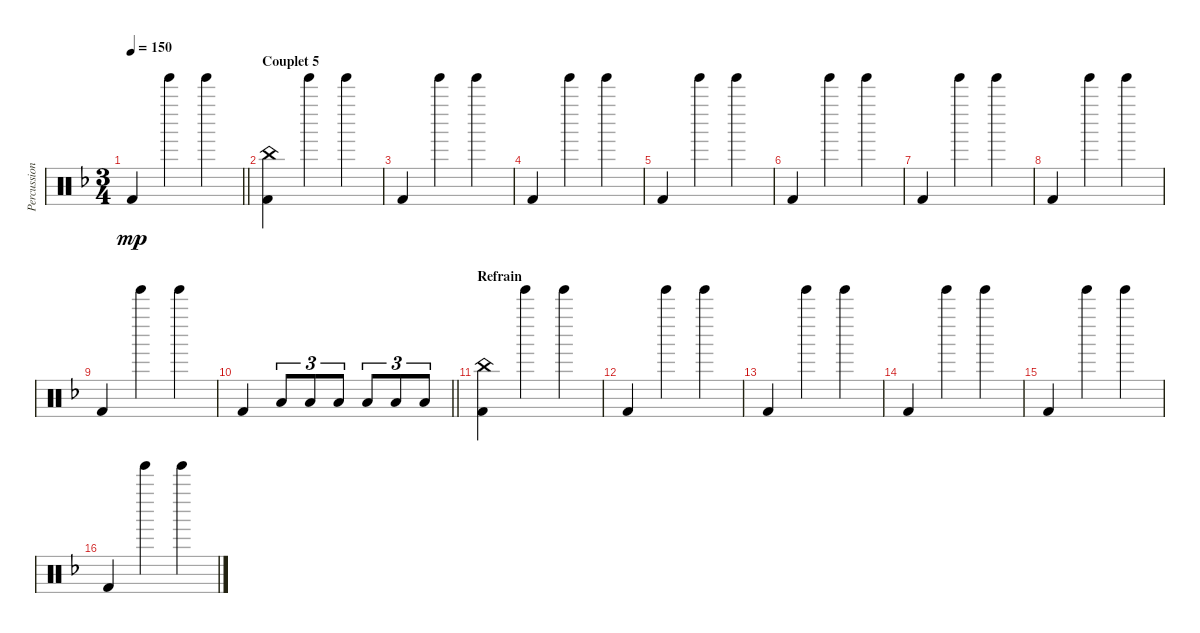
\track ("Percussions" "Percussion") {instrument percussion}
\staff {score}
\articulation defaults
\ts (3 4)
\tempo 150
\clef neutral
\barLineRight lightlight
\ks f "Kick (hit) 2".4{dy mp} "Tinkle Bell (hit)".4 "Tinkle Bell (hit)".4
|
\section ("" "Couplet 5")
("China (hit)" "Kick (hit) 2").4 "Tinkle Bell (hit)".4 "Tinkle Bell (hit)".4 |
"Kick (hit) 2".4 "Tinkle Bell (hit)".4 "Tinkle Bell (hit)".4 |
"Kick (hit) 2".4 "Tinkle Bell (hit)".4 "Tinkle Bell (hit)".4 |
"Kick (hit) 2".4 "Tinkle Bell (hit)".4 "Tinkle Bell (hit)".4 |
"Kick (hit) 2".4 "Tinkle Bell (hit)".4 "Tinkle Bell (hit)".4 |
"Kick (hit) 2".4 "Tinkle Bell (hit)".4 "Tinkle Bell (hit)".4 |
"Kick (hit) 2".4 "Tinkle Bell (hit)".4 "Tinkle Bell (hit)".4 |
"Kick (hit) 2".4 "Tinkle Bell (hit)".4 "Tinkle Bell (hit)".4 |
\barLineRight lightlight "Kick (hit) 2".4 "Low Tom (hit)".8{tu (3 2)} "Low Tom (hit)".8{tu (3 2)} "Low Tom (hit)".8{tu (3 2)} "Low Tom (hit)".8{tu (3 2)} "Low Tom (hit)".8{tu (3 2)} "Low Tom (hit)".8{tu (3 2)}
|
\section ("" "Refrain")
("China (hit)" "Kick (hit) 2").4 "Tinkle Bell (hit)".4 "Tinkle Bell (hit)".4 |
"Kick (hit) 2".4 "Tinkle Bell (hit)".4 "Tinkle Bell (hit)".4 |
"Kick (hit) 2".4 "Tinkle Bell (hit)".4 "Tinkle Bell (hit)".4 |
"Kick (hit) 2".4 "Tinkle Bell (hit)".4 "Tinkle Bell (hit)".4 |
"Kick (hit) 2".4 "Tinkle Bell (hit)".4 "Tinkle Bell (hit)".4 |
"Kick (hit) 2".4 "Tinkle Bell (hit)".4 "Tinkle Bell (hit)".4
